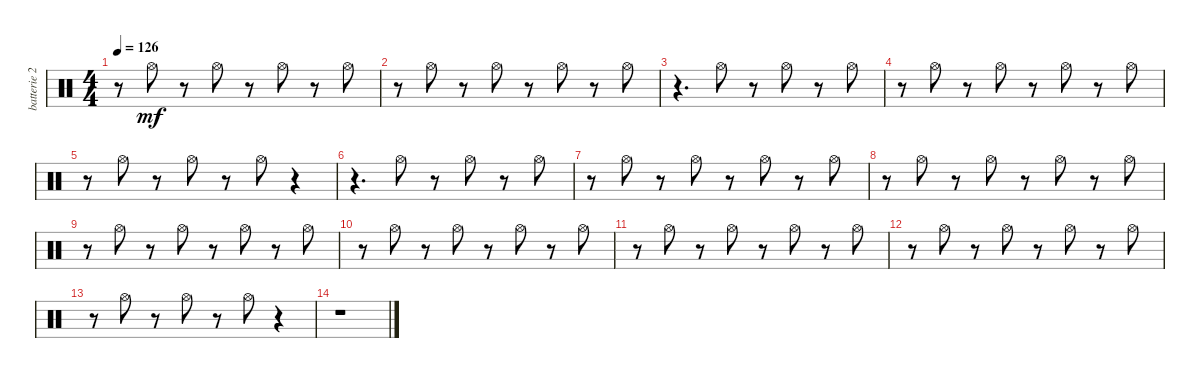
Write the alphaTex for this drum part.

\track ("batterie 2" "batterie 2") {instrument percussion}
\staff {score}
\articulation defaults
\ts (4 4)
\tempo 126
\clef neutral
\ks c
r.8{dy mf} "Hi-Hat (open)".8 r.8 "Hi-Hat (open)".8 r.8 "Hi-Hat (open)".8 r.8 "Hi-Hat (open)".8 |
r.8 "Hi-Hat (open)".8 r.8 "Hi-Hat (open)".8 r.8 "Hi-Hat (open)".8 r.8 "Hi-Hat (open)".8 |
r.4{d} "Hi-Hat (open)".8 r.8 "Hi-Hat (open)".8 r.8 "Hi-Hat (open)".8 |
r.8 "Hi-Hat (open)".8 r.8 "Hi-Hat (open)".8 r.8 "Hi-Hat (open)".8 r.8 "Hi-Hat (open)".8 |
r.8 "Hi-Hat (open)".8 r.8 "Hi-Hat (open)".8 r.8 "Hi-Hat (open)".8 r.4 |
r.4{d} "Hi-Hat (open)".8 r.8 "Hi-Hat (open)".8 r.8 "Hi-Hat (open)".8 |
r.8 "Hi-Hat (open)".8 r.8 "Hi-Hat (open)".8 r.8 "Hi-Hat (open)".8 r.8 "Hi-Hat (open)".8 |
r.8 "Hi-Hat (open)".8 r.8 "Hi-Hat (open)".8 r.8 "Hi-Hat (open)".8 r.8 "Hi-Hat (open)".8 |
r.8 "Hi-Hat (open)".8 r.8 "Hi-Hat (open)".8 r.8 "Hi-Hat (open)".8 r.8 "Hi-Hat (open)".8 |
r.8 "Hi-Hat (open)".8 r.8 "Hi-Hat (open)".8 r.8 "Hi-Hat (open)".8 r.8 "Hi-Hat (open)".8 |
r.8 "Hi-Hat (open)".8 r.8 "Hi-Hat (open)".8 r.8 "Hi-Hat (open)".8 r.8 "Hi-Hat (open)".8 |
r.8 "Hi-Hat (open)".8 r.8 "Hi-Hat (open)".8 r.8 "Hi-Hat (open)".8 r.8 "Hi-Hat (open)".8 |
r.8 "Hi-Hat (open)".8 r.8 "Hi-Hat (open)".8 r.8 "Hi-Hat (open)".8 r.4 |
r.1
